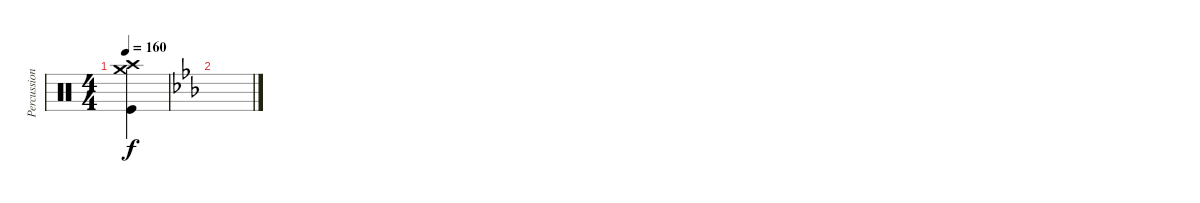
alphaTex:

\track ("Percussion" "Percussion") {instrument percussion}
\staff {score}
\articulation defaults
\ts (4 4)
\tempo 160
\clef neutral
\ks c
("Crash medium (hit)" "Crash high (hit)" "Kick (hit)").4{dy f} |
\ks cminor
